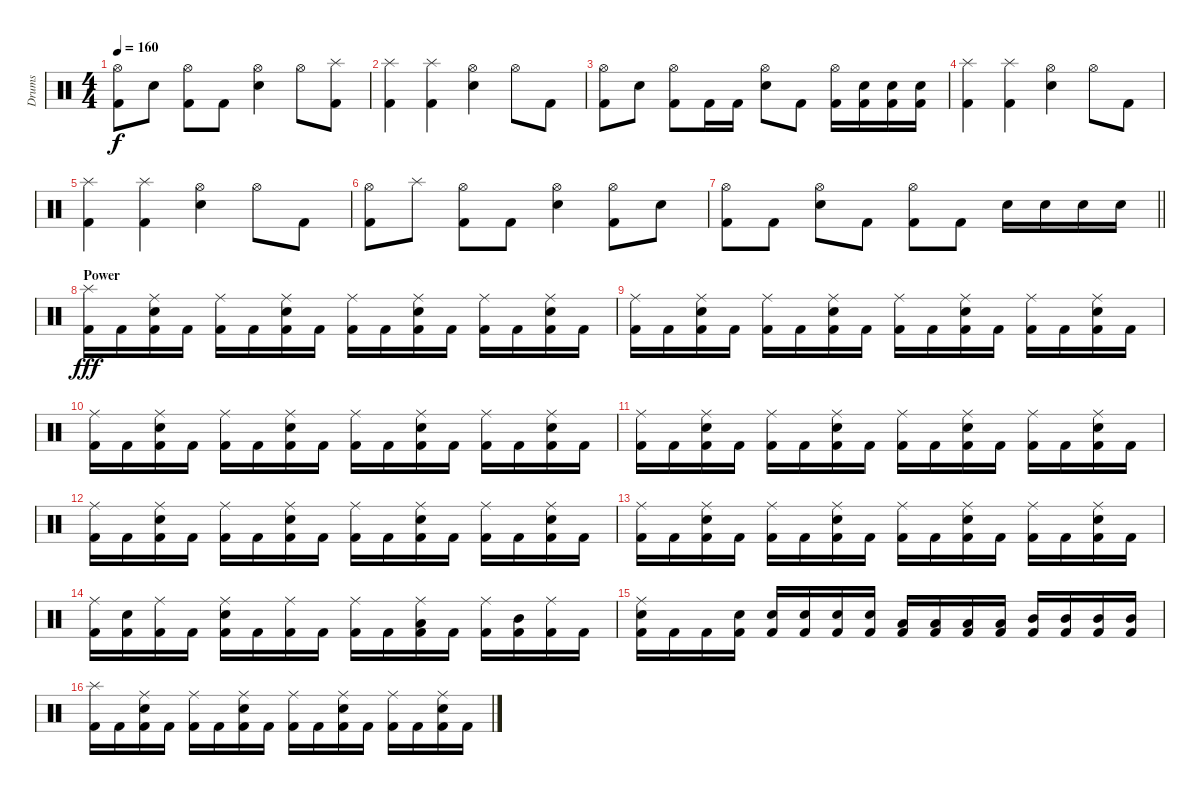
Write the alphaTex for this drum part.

\track ("Drums" "Drums") {instrument percussion}
\staff {score}
\articulation defaults
\ts (4 4)
\tempo 160
\clef neutral
\ks c
("Hi-Hat (open)" "Kick (hit) 2").8{dy f} "Electric Snare (hit)".8 ("Hi-Hat (open)" "Kick (hit) 2").8 "Kick (hit) 2".8 ("Hi-Hat (open)" "Electric Snare (hit)").4 "Hi-Hat (open)".8 ("Splash (hit)" "Kick (hit) 2").8 |
("Splash (hit)" "Kick (hit) 2").4 ("Splash (hit)" "Kick (hit) 2").4 ("Hi-Hat (open)" "Electric Snare (hit)").4 "Hi-Hat (open)".8 "Kick (hit) 2".8 |
("Hi-Hat (open)" "Kick (hit) 2").8 "Electric Snare (hit)".8 ("Hi-Hat (open)" "Kick (hit) 2").8 "Kick (hit) 2".16 "Kick (hit) 2".16 ("Hi-Hat (open)" "Electric Snare (hit)").8 "Kick (hit) 2".8 ("Hi-Hat (open)" "Kick (hit) 2").16 ("Electric Snare (hit)" "Kick (hit) 2").16 ("Electric Snare (hit)" "Kick (hit) 2").16 ("Electric Snare (hit)" "Kick (hit) 2").16 |
("Splash (hit)" "Kick (hit) 2").4 ("Splash (hit)" "Kick (hit) 2").4 ("Hi-Hat (open)" "Electric Snare (hit)").4 "Hi-Hat (open)".8 "Kick (hit) 2".8 |
("Splash (hit)" "Kick (hit) 2").4 ("Splash (hit)" "Kick (hit) 2").4 ("Hi-Hat (open)" "Electric Snare (hit)").4 "Hi-Hat (open)".8 "Kick (hit) 2".8 |
("Hi-Hat (open)" "Kick (hit) 2").8 "Splash (hit)".8 ("Hi-Hat (open)" "Kick (hit) 2").8 "Kick (hit) 2".8 ("Hi-Hat (open)" "Electric Snare (hit)").4 ("Hi-Hat (open)" "Kick (hit) 2").8 "Electric Snare (hit)".8 |
\barLineRight lightlight
("Hi-Hat (open)" "Kick (hit) 2").8 "Kick (hit) 2".8 ("Hi-Hat (open)" "Electric Snare (hit)").8 "Kick (hit) 2".8 ("Hi-Hat (open)" "Kick (hit) 2").8 "Kick (hit) 2".8 "Electric Snare (hit)".16 "Electric Snare (hit)".16 "Electric Snare (hit)".16 "Electric Snare (hit)".16 |
\section ("" "Power")
("Splash (hit)" "Kick (hit) 2").16{dy fff} "Kick (hit) 2".16 ("Ride (middle)" "Electric Snare (hit)" "Kick (hit) 2").16 "Kick (hit) 2".16 ("Ride (middle)" "Kick (hit) 2").16 "Kick (hit) 2".16 ("Ride (middle)" "Electric Snare (hit)" "Kick (hit) 2").16 "Kick (hit) 2".16 ("Ride (middle)" "Kick (hit) 2").16 "Kick (hit) 2".16 ("Ride (middle)" "Electric Snare (hit)" "Kick (hit) 2").16 "Kick (hit) 2".16 ("Ride (middle)" "Kick (hit) 2").16 "Kick (hit) 2".16 ("Ride (middle)" "Electric Snare (hit)" "Kick (hit) 2").16 "Kick (hit) 2".16 |
("Ride (middle)" "Kick (hit) 2").16 "Kick (hit) 2".16 ("Ride (middle)" "Electric Snare (hit)" "Kick (hit) 2").16 "Kick (hit) 2".16 ("Ride (middle)" "Kick (hit) 2").16 "Kick (hit) 2".16 ("Ride (middle)" "Electric Snare (hit)" "Kick (hit) 2").16 "Kick (hit) 2".16 ("Ride (middle)" "Kick (hit) 2").16 "Kick (hit) 2".16 ("Ride (middle)" "Electric Snare (hit)" "Kick (hit) 2").16 "Kick (hit) 2".16 ("Ride (middle)" "Kick (hit) 2").16 "Kick (hit) 2".16 ("Ride (middle)" "Electric Snare (hit)" "Kick (hit) 2").16 "Kick (hit) 2".16 |
("Ride (middle)" "Kick (hit) 2").16 "Kick (hit) 2".16 ("Ride (middle)" "Electric Snare (hit)" "Kick (hit) 2").16 "Kick (hit) 2".16 ("Ride (middle)" "Kick (hit) 2").16 "Kick (hit) 2".16 ("Ride (middle)" "Electric Snare (hit)" "Kick (hit) 2").16 "Kick (hit) 2".16 ("Ride (middle)" "Kick (hit) 2").16 "Kick (hit) 2".16 ("Ride (middle)" "Electric Snare (hit)" "Kick (hit) 2").16 "Kick (hit) 2".16 ("Ride (middle)" "Kick (hit) 2").16 "Kick (hit) 2".16 ("Ride (middle)" "Electric Snare (hit)" "Kick (hit) 2").16 "Kick (hit) 2".16 |
("Ride (middle)" "Kick (hit) 2").16 "Kick (hit) 2".16 ("Ride (middle)" "Electric Snare (hit)" "Kick (hit) 2").16 "Kick (hit) 2".16 ("Ride (middle)" "Kick (hit) 2").16 "Kick (hit) 2".16 ("Ride (middle)" "Electric Snare (hit)" "Kick (hit) 2").16 "Kick (hit) 2".16 ("Ride (middle)" "Kick (hit) 2").16 "Kick (hit) 2".16 ("Ride (middle)" "Electric Snare (hit)" "Kick (hit) 2").16 "Kick (hit) 2".16 ("Ride (middle)" "Kick (hit) 2").16 "Kick (hit) 2".16 ("Ride (middle)" "Electric Snare (hit)" "Kick (hit) 2").16 "Kick (hit) 2".16 |
("Ride (middle)" "Kick (hit) 2").16 "Kick (hit) 2".16 ("Ride (middle)" "Electric Snare (hit)" "Kick (hit) 2").16 "Kick (hit) 2".16 ("Ride (middle)" "Kick (hit) 2").16 "Kick (hit) 2".16 ("Ride (middle)" "Electric Snare (hit)" "Kick (hit) 2").16 "Kick (hit) 2".16 ("Ride (middle)" "Kick (hit) 2").16 "Kick (hit) 2".16 ("Ride (middle)" "Electric Snare (hit)" "Kick (hit) 2").16 "Kick (hit) 2".16 ("Ride (middle)" "Kick (hit) 2").16 "Kick (hit) 2".16 ("Ride (middle)" "Electric Snare (hit)" "Kick (hit) 2").16 "Kick (hit) 2".16 |
("Ride (middle)" "Kick (hit) 2").16 "Kick (hit) 2".16 ("Ride (middle)" "Electric Snare (hit)" "Kick (hit) 2").16 "Kick (hit) 2".16 ("Ride (middle)" "Kick (hit) 2").16 "Kick (hit) 2".16 ("Ride (middle)" "Electric Snare (hit)" "Kick (hit) 2").16 "Kick (hit) 2".16 ("Ride (middle)" "Kick (hit) 2").16 "Kick (hit) 2".16 ("Ride (middle)" "Electric Snare (hit)" "Kick (hit) 2").16 "Kick (hit) 2".16 ("Ride (middle)" "Kick (hit) 2").16 "Kick (hit) 2".16 ("Ride (middle)" "Electric Snare (hit)" "Kick (hit) 2").16 "Kick (hit) 2".16 |
("Ride (middle)" "Kick (hit) 2").16 ("Electric Snare (hit)" "Kick (hit) 2").16 ("Ride (middle)" "Kick (hit) 2").16 "Kick (hit) 2".16 ("Ride (middle)" "Electric Snare (hit)" "Kick (hit) 2").16 "Kick (hit) 2".16 ("Ride (middle)" "Kick (hit) 2").16 "Kick (hit) 2".16 ("Ride (middle)" "Kick (hit) 2").16 "Kick (hit) 2".16 ("Ride (middle)" "Low Tom (hit)" "Kick (hit) 2").16 "Kick (hit) 2".16 ("Ride (middle)" "Kick (hit) 2").16 ("Mid Tom (hit)" "Kick (hit) 2").16 ("Ride (middle)" "Kick (hit) 2").16 "Kick (hit) 2".16 |
("Ride (middle)" "Electric Snare (hit)" "Kick (hit) 2").16 "Kick (hit) 2".16 "Kick (hit) 2".16 ("Electric Snare (hit)" "Kick (hit) 2").16 ("Electric Snare (hit)" "Kick (hit) 2").16 ("Electric Snare (hit)" "Kick (hit) 2").16 ("Electric Snare (hit)" "Kick (hit) 2").16 ("Electric Snare (hit)" "Kick (hit) 2").16 ("Low Tom (hit)" "Kick (hit) 2").16 ("Low Tom (hit)" "Kick (hit) 2").16 ("Low Tom (hit)" "Kick (hit) 2").16 ("Low Tom (hit)" "Kick (hit) 2").16 ("Mid Tom (hit)" "Kick (hit) 2").16 ("Mid Tom (hit)" "Kick (hit) 2").16 ("Mid Tom (hit)" "Kick (hit) 2").16 ("Mid Tom (hit)" "Kick (hit) 2").16 |
("Splash (hit)" "Kick (hit) 2").16 "Kick (hit) 2".16 ("Ride (middle)" "Electric Snare (hit)" "Kick (hit) 2").16 "Kick (hit) 2".16 ("Ride (middle)" "Kick (hit) 2").16 "Kick (hit) 2".16 ("Ride (middle)" "Electric Snare (hit)" "Kick (hit) 2").16 "Kick (hit) 2".16 ("Ride (middle)" "Kick (hit) 2").16 "Kick (hit) 2".16 ("Ride (middle)" "Electric Snare (hit)" "Kick (hit) 2").16 "Kick (hit) 2".16 ("Ride (middle)" "Kick (hit) 2").16 "Kick (hit) 2".16 ("Ride (middle)" "Electric Snare (hit)" "Kick (hit) 2").16 "Kick (hit) 2".16
